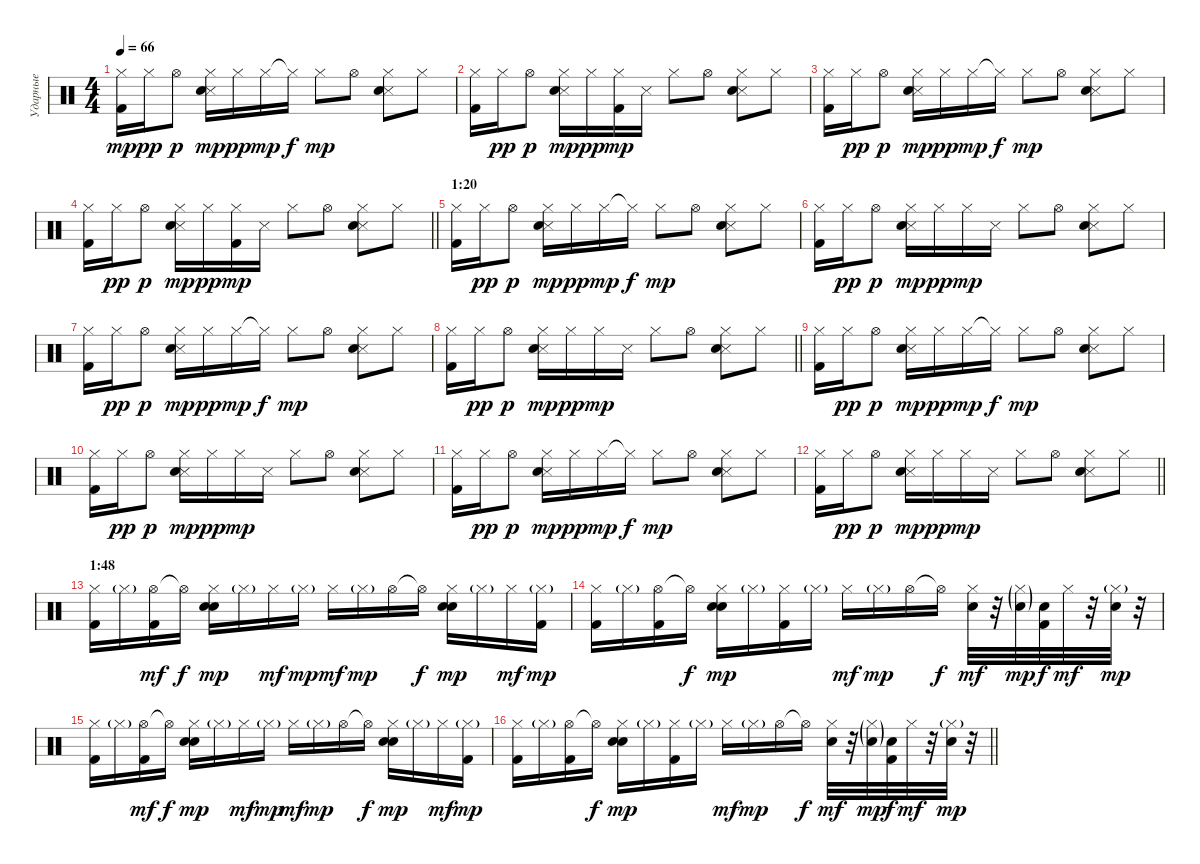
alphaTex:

\track ("Ударные" "Ударные") {instrument percussion}
\staff {score}
\articulation defaults
\ts (4 4)
\tempo 66
\clef neutral
\ks c
("Hi-Hat (closed)" "Kick (hit) 2").16{dy mp} "Hi-Hat (closed)".16{dy pp} "Hi-Hat (open)".8{dy p} ("Hi-Hat (closed)" "Snare (side stick) 3" "Electric Snare (hit)").16{dy mp} "Hi-Hat (closed)".16{dy pp} "Hi-Hat (closed)".16{dy mp} "Hi-Hat (closed)"{t}.16{dy f} "Hi-Hat (closed)".8{dy mp} "Hi-Hat (open)".8{balance 0} ("Hi-Hat (closed)" "Snare (side stick) 3" "Electric Snare (hit)").8{balance 8} "Hi-Hat (closed)".8 |
("Hi-Hat (closed)" "Kick (hit) 2").16 "Hi-Hat (closed)".16{dy pp} "Hi-Hat (open)".8{dy p} ("Hi-Hat (closed)" "Snare (side stick) 3" "Electric Snare (hit)").16{dy mp} "Hi-Hat (closed)".16{dy pp} ("Hi-Hat (closed)" "Kick (hit) 2").16{dy mp} "Snare (side stick) 3".16 "Hi-Hat (closed)".8 "Hi-Hat (open)".8{balance 0} ("Hi-Hat (closed)" "Snare (side stick) 3" "Electric Snare (hit)").8{balance 8} "Hi-Hat (closed)".8 |
("Hi-Hat (closed)" "Kick (hit) 2").16 "Hi-Hat (closed)".16{dy pp} "Hi-Hat (open)".8{dy p} ("Hi-Hat (closed)" "Snare (side stick) 3" "Electric Snare (hit)").16{dy mp} "Hi-Hat (closed)".16{dy pp} "Hi-Hat (closed)".16{dy mp} "Hi-Hat (closed)"{t}.16{dy f} "Hi-Hat (closed)".8{dy mp} "Hi-Hat (open)".8{balance 0} ("Hi-Hat (closed)" "Snare (side stick) 3" "Electric Snare (hit)").8{balance 8} "Hi-Hat (closed)".8 |
\barLineRight lightlight
("Hi-Hat (closed)" "Kick (hit) 2").16 "Hi-Hat (closed)".16{dy pp} "Hi-Hat (open)".8{dy p} ("Hi-Hat (closed)" "Snare (side stick) 3" "Electric Snare (hit)").16{dy mp} "Hi-Hat (closed)".16{dy pp} ("Hi-Hat (closed)" "Kick (hit) 2").16{dy mp} "Snare (side stick) 3".16 "Hi-Hat (closed)".8 "Hi-Hat (open)".8{balance 0} ("Hi-Hat (closed)" "Snare (side stick) 3" "Electric Snare (hit)").8{balance 8} "Hi-Hat (closed)".8 |
\section ("" "1:20")
("Hi-Hat (closed)" "Kick (hit) 2").16 "Hi-Hat (closed)".16{dy pp} "Hi-Hat (open)".8{dy p} ("Hi-Hat (closed)" "Snare (side stick) 3" "Electric Snare (hit)").16{dy mp} "Hi-Hat (closed)".16{dy pp} "Hi-Hat (closed)".16{dy mp} "Hi-Hat (closed)"{t}.16{dy f} "Hi-Hat (closed)".8{dy mp} "Hi-Hat (open)".8{balance 0} ("Hi-Hat (closed)" "Snare (side stick) 3" "Electric Snare (hit)").8{balance 8} "Hi-Hat (closed)".8 |
("Hi-Hat (closed)" "Kick (hit) 2").16 "Hi-Hat (closed)".16{dy pp} "Hi-Hat (open)".8{dy p} ("Hi-Hat (closed)" "Snare (side stick) 3" "Electric Snare (hit)").16{dy mp} "Hi-Hat (closed)".16{dy pp} "Hi-Hat (closed)".16{dy mp} "Snare (side stick) 3".16 "Hi-Hat (closed)".8 "Hi-Hat (open)".8{balance 0} ("Hi-Hat (closed)" "Snare (side stick) 3" "Electric Snare (hit)").8{balance 8} "Hi-Hat (closed)".8 |
("Hi-Hat (closed)" "Kick (hit) 2").16 "Hi-Hat (closed)".16{dy pp} "Hi-Hat (open)".8{dy p} ("Hi-Hat (closed)" "Snare (side stick) 3" "Electric Snare (hit)").16{dy mp} "Hi-Hat (closed)".16{dy pp} "Hi-Hat (closed)".16{dy mp} "Hi-Hat (closed)"{t}.16{dy f} "Hi-Hat (closed)".8{dy mp} "Hi-Hat (open)".8{balance 0} ("Hi-Hat (closed)" "Snare (side stick) 3" "Electric Snare (hit)").8{balance 8} "Hi-Hat (closed)".8 |
\barLineRight lightlight
("Hi-Hat (closed)" "Kick (hit) 2").16 "Hi-Hat (closed)".16{dy pp} "Hi-Hat (open)".8{dy p} ("Hi-Hat (closed)" "Snare (side stick) 3" "Electric Snare (hit)").16{dy mp} "Hi-Hat (closed)".16{dy pp} "Hi-Hat (closed)".16{dy mp} "Snare (side stick) 3".16 "Hi-Hat (closed)".8 "Hi-Hat (open)".8{balance 0} ("Hi-Hat (closed)" "Snare (side stick) 3" "Electric Snare (hit)").8{balance 8} "Hi-Hat (closed)".8 |
("Hi-Hat (closed)" "Kick (hit) 2").16 "Hi-Hat (closed)".16{dy pp} "Hi-Hat (open)".8{dy p} ("Hi-Hat (closed)" "Snare (side stick) 3" "Electric Snare (hit)").16{dy mp} "Hi-Hat (closed)".16{dy pp} "Hi-Hat (closed)".16{dy mp} "Hi-Hat (closed)"{t}.16{dy f} "Hi-Hat (closed)".8{dy mp} "Hi-Hat (open)".8{balance 0} ("Hi-Hat (closed)" "Snare (side stick) 3" "Electric Snare (hit)").8{balance 8} "Hi-Hat (closed)".8 |
("Hi-Hat (closed)" "Kick (hit) 2").16 "Hi-Hat (closed)".16{dy pp} "Hi-Hat (open)".8{dy p} ("Hi-Hat (closed)" "Snare (side stick) 3" "Electric Snare (hit)").16{dy mp} "Hi-Hat (closed)".16{dy pp} "Hi-Hat (closed)".16{dy mp} "Snare (side stick) 3".16 "Hi-Hat (closed)".8 "Hi-Hat (open)".8{balance 0} ("Hi-Hat (closed)" "Snare (side stick) 3" "Electric Snare (hit)").8{balance 8} "Hi-Hat (closed)".8 |
("Hi-Hat (closed)" "Kick (hit) 2").16 "Hi-Hat (closed)".16{dy pp} "Hi-Hat (open)".8{dy p} ("Hi-Hat (closed)" "Snare (side stick) 3" "Electric Snare (hit)").16{dy mp} "Hi-Hat (closed)".16{dy pp} "Hi-Hat (closed)".16{dy mp} "Hi-Hat (closed)"{t}.16{dy f} "Hi-Hat (closed)".8{dy mp} "Hi-Hat (open)".8{balance 0} ("Hi-Hat (closed)" "Snare (side stick) 3" "Electric Snare (hit)").8{balance 8} "Hi-Hat (closed)".8 |
\barLineRight lightlight
("Hi-Hat (closed)" "Kick (hit) 2").16 "Hi-Hat (closed)".16{dy pp} "Hi-Hat (open)".8{dy p} ("Hi-Hat (closed)" "Snare (side stick) 3" "Electric Snare (hit)").16{dy mp} "Hi-Hat (closed)".16{dy pp} "Hi-Hat (closed)".16{dy mp} "Snare (side stick) 3".16 "Hi-Hat (closed)".8 "Hi-Hat (open)".8{balance 0} ("Hi-Hat (closed)" "Snare (side stick) 3" "Electric Snare (hit)").8{balance 8} "Hi-Hat (closed)".8 |
\section ("" "1:48")
("Hi-Hat (closed)" "Kick (hit) 2").16 "Hi-Hat (closed)"{g}.16 ("Hi-Hat (open)" "Kick (hit) 2").16{dy mf} "Hi-Hat (open)"{t}.16{dy f} ("Hi-Hat (closed)" "Hand Clap (hit)" "Electric Snare (hit)").16{dy mp} "Hi-Hat (closed)"{g}.16 "Hi-Hat (closed)".16{dy mf} "Hi-Hat (closed)"{g}.16{dy mp} "Hi-Hat (closed)".16{dy mf} "Hi-Hat (closed)"{g}.16{dy mp} "Hi-Hat (open)".16{balance 0} "Hi-Hat (open)"{t}.16{dy f} ("Hi-Hat (closed)" "Hand Clap (hit)" "Electric Snare (hit)").16{dy mp balance 8} "Hi-Hat (closed)"{g}.16 "Hi-Hat (closed)".16{dy mf} ("Hi-Hat (closed)"{g} "Kick (hit) 2").16{dy mp} |
("Hi-Hat (closed)" "Kick (hit) 2").16 "Hi-Hat (closed)"{g}.16 ("Hi-Hat (open)" "Kick (hit) 2").16 "Hi-Hat (open)"{t}.16{dy f} ("Hi-Hat (closed)" "Hand Clap (hit)" "Electric Snare (hit)").16{dy mp} "Hi-Hat (closed)"{g}.16 ("Hi-Hat (closed)" "Kick (hit) 2").16 "Hi-Hat (closed)"{g}.16 "Hi-Hat (closed)".16{dy mf} "Hi-Hat (closed)"{g}.16{dy mp} "Hi-Hat (open)".16{balance 0} "Hi-Hat (open)"{t}.16{dy f balance 8} ("Hi-Hat (closed)" "Hand Clap (hit)").32{dy mf balance 8} r.32 ("Hand Clap (hit)"{g} "Hi-Hat (closed)"{g}).32{dy mp} ("Hand Clap (hit)" "Kick (hit) 2").32{dy f} "Hi-Hat (closed)".32{dy mf} r.32 ("Hand Clap (hit)" "Hi-Hat (closed)"{g}).32{dy mp} r.32 |
("Hi-Hat (closed)" "Kick (hit) 2").16 "Hi-Hat (closed)"{g}.16 ("Hi-Hat (open)" "Kick (hit) 2").16{dy mf} "Hi-Hat (open)"{t}.16{dy f} ("Hi-Hat (closed)" "Hand Clap (hit)" "Electric Snare (hit)").16{dy mp} "Hi-Hat (closed)"{g}.16 "Hi-Hat (closed)".16{dy mf} "Hi-Hat (closed)"{g}.16{dy mp} "Hi-Hat (closed)".16{dy mf} "Hi-Hat (closed)"{g}.16{dy mp} "Hi-Hat (open)".16{balance 0} "Hi-Hat (open)"{t}.16{dy f} ("Hi-Hat (closed)" "Hand Clap (hit)" "Electric Snare (hit)").16{dy mp balance 8} "Hi-Hat (closed)"{g}.16 "Hi-Hat (closed)".16{dy mf} ("Hi-Hat (closed)"{g} "Kick (hit) 2").16{dy mp} |
\barLineRight lightlight
("Hi-Hat (closed)" "Kick (hit) 2").16 "Hi-Hat (closed)"{g}.16 ("Hi-Hat (open)" "Kick (hit) 2").16 "Hi-Hat (open)"{t}.16{dy f} ("Hi-Hat (closed)" "Hand Clap (hit)" "Electric Snare (hit)").16{dy mp} "Hi-Hat (closed)"{g}.16 ("Hi-Hat (closed)" "Kick (hit) 2").16 "Hi-Hat (closed)"{g}.16 "Hi-Hat (closed)".16{dy mf} "Hi-Hat (closed)"{g}.16{dy mp} "Hi-Hat (open)".16{balance 0} "Hi-Hat (open)"{t}.16{dy f balance 8} ("Hi-Hat (closed)" "Hand Clap (hit)").32{dy mf balance 8} r.32 ("Hand Clap (hit)"{g} "Hi-Hat (closed)"{g}).32{dy mp} ("Hand Clap (hit)" "Kick (hit) 2").32{dy f} "Hi-Hat (closed)".32{dy mf} r.32 ("Hand Clap (hit)" "Hi-Hat (closed)"{g}).32{dy mp} r.32
